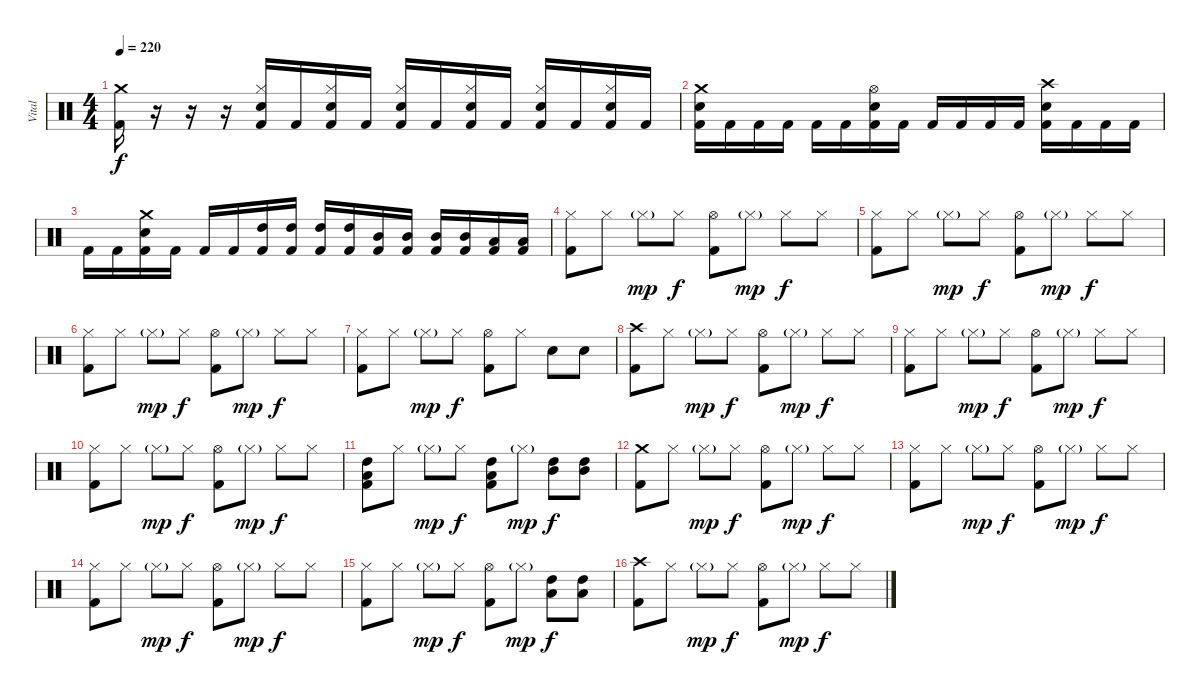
\track ("Vital" "Vital") {instrument percussion}
\staff {score}
\articulation defaults
\ts (4 4)
\tempo 220
\clef neutral
\ks c
("Crash medium (hit)" "Kick (hit) 2").16{dy f} r.16 r.16 r.16 ("Hi-Hat (closed)" "Snare (hit) 2" "Kick (hit) 2").16 "Kick (hit) 2".16 ("Hi-Hat (closed)" "Snare (hit) 2" "Kick (hit) 2").16 "Kick (hit) 2".16 ("Hi-Hat (closed)" "Snare (hit) 2" "Kick (hit) 2").16 "Kick (hit) 2".16 ("Hi-Hat (closed)" "Snare (hit) 2" "Kick (hit) 2").16 "Kick (hit) 2".16 ("Hi-Hat (closed)" "Snare (hit) 2" "Kick (hit) 2").16 "Kick (hit) 2".16 ("Hi-Hat (closed)" "Snare (hit) 2" "Kick (hit) 2").16 "Kick (hit) 2".16 |
("Crash medium (hit)" "Snare (hit) 2" "Kick (hit) 2").16 "Kick (hit) 2".16 "Kick (hit) 2".16 "Kick (hit) 2".16 "Kick (hit) 2".16 "Kick (hit) 2".16 ("Hi-Hat (open)" "Snare (hit) 2" "Kick (hit) 2").16 "Kick (hit) 2".16 "Kick (hit) 2".16 "Kick (hit) 2".16 "Kick (hit) 2".16 "Kick (hit) 2".16 ("Crash high (hit)" "Snare (hit) 2" "Kick (hit) 2").16 "Kick (hit) 2".16 "Kick (hit) 2".16 "Kick (hit) 2".16 |
"Kick (hit) 2".16 "Kick (hit) 2".16 ("Crash medium (hit)" "Snare (hit) 2" "Kick (hit) 2").16 "Kick (hit) 2".16 "Kick (hit) 2".16 "Kick (hit) 2".16 ("High Tom (hit)" "Kick (hit) 2").16 ("High Tom (hit)" "Kick (hit) 2").16 ("High Tom (hit)" "Kick (hit) 2").16 ("High Tom (hit)" "Kick (hit) 2").16 ("Mid Tom (hit)" "Kick (hit) 2").16 ("Mid Tom (hit)" "Kick (hit) 2").16 ("Mid Tom (hit)" "Kick (hit) 2").16 ("Mid Tom (hit)" "Kick (hit) 2").16 ("Low Tom (hit)" "Kick (hit) 2").16 ("Low Tom (hit)" "Kick (hit) 2").16 |
("Hi-Hat (closed)" "Kick (hit) 2").8 "Hi-Hat (closed)".8 "Hi-Hat (closed)"{g}.8{dy mp} "Hi-Hat (closed)".8{dy f} ("Hi-Hat (open)" "Kick (hit) 2").8 "Hi-Hat (closed)"{g}.8{dy mp} "Hi-Hat (closed)".8{dy f} "Hi-Hat (closed)".8 |
("Hi-Hat (closed)" "Kick (hit) 2").8 "Hi-Hat (closed)".8 "Hi-Hat (closed)"{g}.8{dy mp} "Hi-Hat (closed)".8{dy f} ("Hi-Hat (open)" "Kick (hit) 2").8 "Hi-Hat (closed)"{g}.8{dy mp} "Hi-Hat (closed)".8{dy f} "Hi-Hat (closed)".8 |
("Hi-Hat (closed)" "Kick (hit) 2").8 "Hi-Hat (closed)".8 "Hi-Hat (closed)"{g}.8{dy mp} "Hi-Hat (closed)".8{dy f} ("Hi-Hat (open)" "Kick (hit) 2").8 "Hi-Hat (closed)"{g}.8{dy mp} "Hi-Hat (closed)".8{dy f} "Hi-Hat (closed)".8 |
("Hi-Hat (closed)" "Kick (hit) 2").8 "Hi-Hat (closed)".8 "Hi-Hat (closed)"{g}.8{dy mp} "Hi-Hat (closed)".8{dy f} ("Hi-Hat (open)" "Kick (hit) 2").8 "Hi-Hat (closed)".8 "Snare (hit) 2".8 "Snare (hit) 2".8 |
("Crash high (hit)" "Kick (hit) 2").8 "Hi-Hat (closed)".8 "Hi-Hat (closed)"{g}.8{dy mp} "Hi-Hat (closed)".8{dy f} ("Hi-Hat (open)" "Kick (hit) 2").8 "Hi-Hat (closed)"{g}.8{dy mp} "Hi-Hat (closed)".8{dy f} "Hi-Hat (closed)".8 |
("Hi-Hat (closed)" "Kick (hit) 2").8 "Hi-Hat (closed)".8 "Hi-Hat (closed)"{g}.8{dy mp} "Hi-Hat (closed)".8{dy f} ("Hi-Hat (open)" "Kick (hit) 2").8 "Hi-Hat (closed)"{g}.8{dy mp} "Hi-Hat (closed)".8{dy f} "Hi-Hat (closed)".8 |
("Hi-Hat (closed)" "Kick (hit) 2").8 "Hi-Hat (closed)".8 "Hi-Hat (closed)"{g}.8{dy mp} "Hi-Hat (closed)".8{dy f} ("Hi-Hat (open)" "Kick (hit) 2").8 "Hi-Hat (closed)"{g}.8{dy mp} "Hi-Hat (closed)".8{dy f} "Hi-Hat (closed)".8 |
("High Tom (hit)" "Low Tom (hit)" "Kick (hit) 2").8 "Hi-Hat (closed)".8 "Hi-Hat (closed)"{g}.8{dy mp} "Hi-Hat (closed)".8{dy f} ("High Tom (hit)" "Low Tom (hit)" "Kick (hit) 2").8 "Hi-Hat (closed)"{g}.8{dy mp} ("Mid Tom (hit)" "High Tom (hit)").8{dy f} ("Mid Tom (hit)" "High Tom (hit)").8 |
("Crash medium (hit)" "Kick (hit) 2").8 "Hi-Hat (closed)".8 "Hi-Hat (closed)"{g}.8{dy mp} "Hi-Hat (closed)".8{dy f} ("Hi-Hat (open)" "Kick (hit) 2").8 "Hi-Hat (closed)"{g}.8{dy mp} "Hi-Hat (closed)".8{dy f} "Hi-Hat (closed)".8 |
("Hi-Hat (closed)" "Kick (hit) 2").8 "Hi-Hat (closed)".8 "Hi-Hat (closed)"{g}.8{dy mp} "Hi-Hat (closed)".8{dy f} ("Hi-Hat (open)" "Kick (hit) 2").8 "Hi-Hat (closed)"{g}.8{dy mp} "Hi-Hat (closed)".8{dy f} "Hi-Hat (closed)".8 |
("Hi-Hat (closed)" "Kick (hit) 2").8 "Hi-Hat (closed)".8 "Hi-Hat (closed)"{g}.8{dy mp} "Hi-Hat (closed)".8{dy f} ("Hi-Hat (open)" "Kick (hit) 2").8 "Hi-Hat (closed)"{g}.8{dy mp} "Hi-Hat (closed)".8{dy f} "Hi-Hat (closed)".8 |
("Hi-Hat (closed)" "Kick (hit) 2").8 "Hi-Hat (closed)".8 "Hi-Hat (closed)"{g}.8{dy mp} "Hi-Hat (closed)".8{dy f} ("Hi-Hat (open)" "Kick (hit) 2").8 "Hi-Hat (closed)"{g}.8{dy mp} ("High Tom (hit)" "Low Tom (hit)").8{dy f} ("High Tom (hit)" "Low Tom (hit)").8 |
("Crash high (hit)" "Kick (hit) 2").8 "Hi-Hat (closed)".8 "Hi-Hat (closed)"{g}.8{dy mp} "Hi-Hat (closed)".8{dy f} ("Hi-Hat (open)" "Kick (hit) 2").8 "Hi-Hat (closed)"{g}.8{dy mp} "Hi-Hat (closed)".8{dy f} "Hi-Hat (closed)".8
